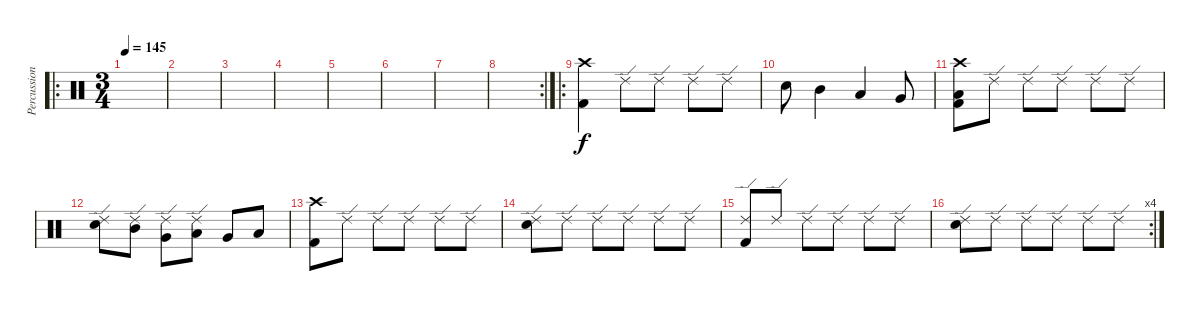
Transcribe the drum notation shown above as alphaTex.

\track ("Percussion" "Percussion") {instrument percussion}
\staff {score}
\articulation defaults
\ro
\ts (3 4)
\tempo 145
\clef neutral
\ks c
|
|
|
|
|
|
|
\rc 2
|
\ro
("Crash high (hit)" "Kick (hit) 2").4 "Ride (edge) 2".8 "Ride (edge) 2".8 "Ride (edge) 2".8 "Ride (edge) 2".8 |
"Electric Snare (hit)".8 "Mid Tom (hit)".4 "Low Tom (hit)".4 "Very Low Tom (hit)".8 |
("Crash high (hit)" "Low Floor Tom (hit)" "Kick (hit) 2").8 "Ride (edge) 2".8 "Ride (edge) 2".8 "Ride (edge) 2".8 "Ride (edge) 2".8 "Ride (edge) 2".8 |
("Ride (edge) 2" "Electric Snare (hit)").8 ("Ride (edge) 2" "Mid Tom (hit)").8 ("Ride (edge) 2" "Very Low Tom (hit)").8 ("Ride (edge) 2" "Low Tom (hit)").8 "Very Low Tom (hit)".8 "Low Floor Tom (hit)".8 |
("Crash high (hit)" "Kick (hit) 2").8 "Ride (edge) 2".8 "Ride (edge) 2".8 "Ride (edge) 2".8 "Ride (edge) 2".8 "Ride (edge) 2".8 |
("Ride (edge) 2" "Electric Snare (hit)").8 "Ride (edge) 2".8 "Ride (edge) 2".8 "Ride (edge) 2".8 "Ride (edge) 2".8 "Ride (edge) 2".8 |
("Ride (edge) 2" "Kick (hit) 2").8 "Ride (edge) 2".8 "Ride (edge) 2".8 "Ride (edge) 2".8 "Ride (edge) 2".8 "Ride (edge) 2".8 |
\rc 4
("Ride (edge) 2" "Electric Snare (hit)").8 "Ride (edge) 2".8 "Ride (edge) 2".8 "Ride (edge) 2".8 "Ride (edge) 2".8 "Ride (edge) 2".8
